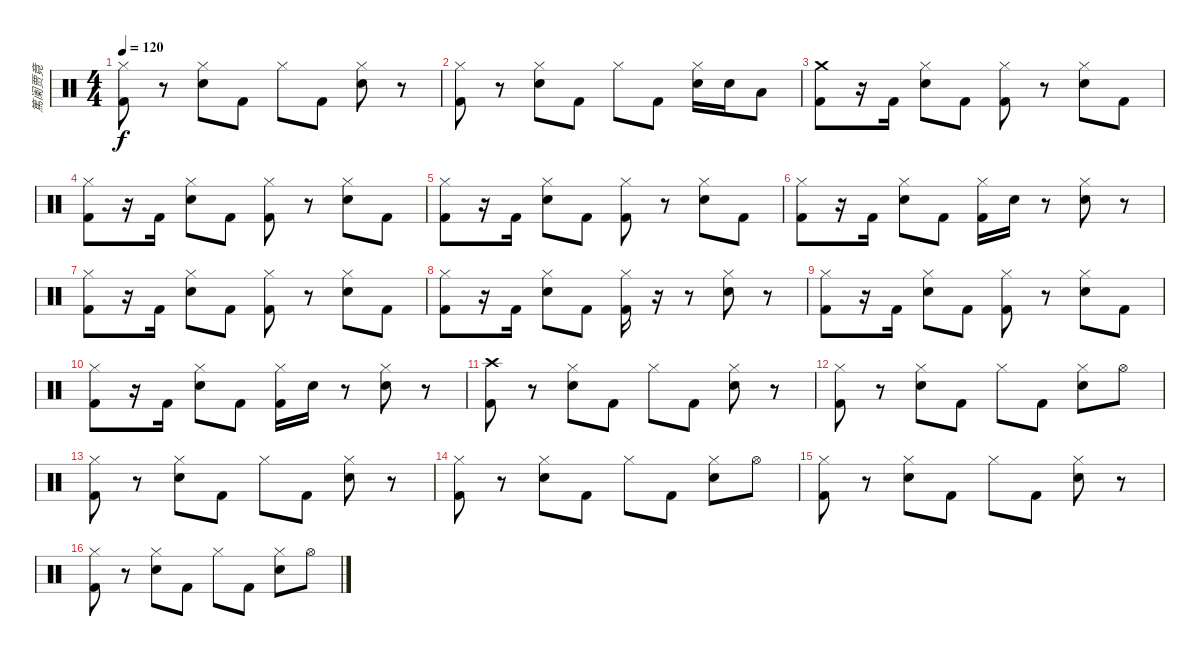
\track ("篤阑贾竟" "篤阑贾竟") {instrument percussion}
\staff {score}
\articulation defaults
\ts (4 4)
\tempo 120
\clef neutral
\ks c
("Hi-Hat (closed)" "Kick (hit) 2").8{dy f} r.8 ("Hi-Hat (closed)" "Electric Snare (hit)").8 "Kick (hit) 2".8 "Hi-Hat (closed)".8 "Kick (hit) 2".8 ("Hi-Hat (closed)" "Electric Snare (hit)").8 r.8 |
("Hi-Hat (closed)" "Kick (hit) 2").8 r.8 ("Hi-Hat (closed)" "Electric Snare (hit)").8 "Kick (hit) 2".8 "Hi-Hat (closed)".8 "Kick (hit) 2".8 ("Hi-Hat (closed)" "Electric Snare (hit)").16 "Electric Snare (hit)".16 "Low Tom (hit)".8 |
("Crash medium (hit)" "Kick (hit) 2").8 r.16 "Kick (hit) 2".16 ("Hi-Hat (closed)" "Electric Snare (hit)").8 "Kick (hit) 2".8 ("Hi-Hat (closed)" "Kick (hit) 2").8 r.8 ("Hi-Hat (closed)" "Electric Snare (hit)").8 "Kick (hit) 2".8 |
("Hi-Hat (closed)" "Kick (hit) 2").8 r.16 "Kick (hit) 2".16 ("Hi-Hat (closed)" "Electric Snare (hit)").8 "Kick (hit) 2".8 ("Hi-Hat (closed)" "Kick (hit) 2").8 r.8 ("Hi-Hat (closed)" "Electric Snare (hit)").8 "Kick (hit) 2".8 |
("Hi-Hat (closed)" "Kick (hit) 2").8 r.16 "Kick (hit) 2".16 ("Hi-Hat (closed)" "Electric Snare (hit)").8 "Kick (hit) 2".8 ("Hi-Hat (closed)" "Kick (hit) 2").8 r.8 ("Hi-Hat (closed)" "Electric Snare (hit)").8 "Kick (hit) 2".8 |
("Hi-Hat (closed)" "Kick (hit) 2").8 r.16 "Kick (hit) 2".16 ("Hi-Hat (closed)" "Electric Snare (hit)").8 "Kick (hit) 2".8 ("Hi-Hat (closed)" "Kick (hit) 2").16 "Electric Snare (hit)".16 r.8 ("Hi-Hat (closed)" "Electric Snare (hit)").8 r.8 |
("Hi-Hat (closed)" "Kick (hit) 2").8 r.16 "Kick (hit) 2".16 ("Hi-Hat (closed)" "Electric Snare (hit)").8 "Kick (hit) 2".8 ("Hi-Hat (closed)" "Kick (hit) 2").8 r.8 ("Hi-Hat (closed)" "Electric Snare (hit)").8 "Kick (hit) 2".8 |
("Hi-Hat (closed)" "Kick (hit) 2").8 r.16 "Kick (hit) 2".16 ("Hi-Hat (closed)" "Electric Snare (hit)").8 "Kick (hit) 2".8 ("Hi-Hat (closed)" "Kick (hit) 2").16 r.16 r.8 ("Hi-Hat (closed)" "Electric Snare (hit)").8 r.8 |
("Hi-Hat (closed)" "Kick (hit) 2").8 r.16 "Kick (hit) 2".16 ("Hi-Hat (closed)" "Electric Snare (hit)").8 "Kick (hit) 2".8 ("Hi-Hat (closed)" "Kick (hit) 2").8 r.8 ("Hi-Hat (closed)" "Electric Snare (hit)").8 "Kick (hit) 2".8 |
("Hi-Hat (closed)" "Kick (hit) 2").8 r.16 "Kick (hit) 2".16 ("Hi-Hat (closed)" "Electric Snare (hit)").8 "Kick (hit) 2".8 ("Hi-Hat (closed)" "Kick (hit) 2").16 "Electric Snare (hit)".16 r.8 ("Hi-Hat (closed)" "Electric Snare (hit)").8 r.8 |
("Crash high (hit)" "Kick (hit) 2").8 r.8 ("Hi-Hat (closed)" "Electric Snare (hit)").8 "Kick (hit) 2".8 "Hi-Hat (closed)".8 "Kick (hit) 2".8 ("Hi-Hat (closed)" "Electric Snare (hit)").8 r.8 |
("Hi-Hat (closed)" "Kick (hit) 2").8 r.8 ("Hi-Hat (closed)" "Electric Snare (hit)").8 "Kick (hit) 2".8 "Hi-Hat (closed)".8 "Kick (hit) 2".8 ("Hi-Hat (closed)" "Electric Snare (hit)").8 "Hi-Hat (open)".8 |
("Hi-Hat (closed)" "Kick (hit) 2").8 r.8 ("Hi-Hat (closed)" "Electric Snare (hit)").8 "Kick (hit) 2".8 "Hi-Hat (closed)".8 "Kick (hit) 2".8 ("Hi-Hat (closed)" "Electric Snare (hit)").8 r.8 |
("Hi-Hat (closed)" "Kick (hit) 2").8 r.8 ("Hi-Hat (closed)" "Electric Snare (hit)").8 "Kick (hit) 2".8 "Hi-Hat (closed)".8 "Kick (hit) 2".8 ("Hi-Hat (closed)" "Electric Snare (hit)").8 "Hi-Hat (open)".8 |
("Hi-Hat (closed)" "Kick (hit) 2").8 r.8 ("Hi-Hat (closed)" "Electric Snare (hit)").8 "Kick (hit) 2".8 "Hi-Hat (closed)".8 "Kick (hit) 2".8 ("Hi-Hat (closed)" "Electric Snare (hit)").8 r.8 |
("Hi-Hat (closed)" "Kick (hit) 2").8 r.8 ("Hi-Hat (closed)" "Electric Snare (hit)").8 "Kick (hit) 2".8 "Hi-Hat (closed)".8 "Kick (hit) 2".8 ("Hi-Hat (closed)" "Electric Snare (hit)").8 "Hi-Hat (open)".8
